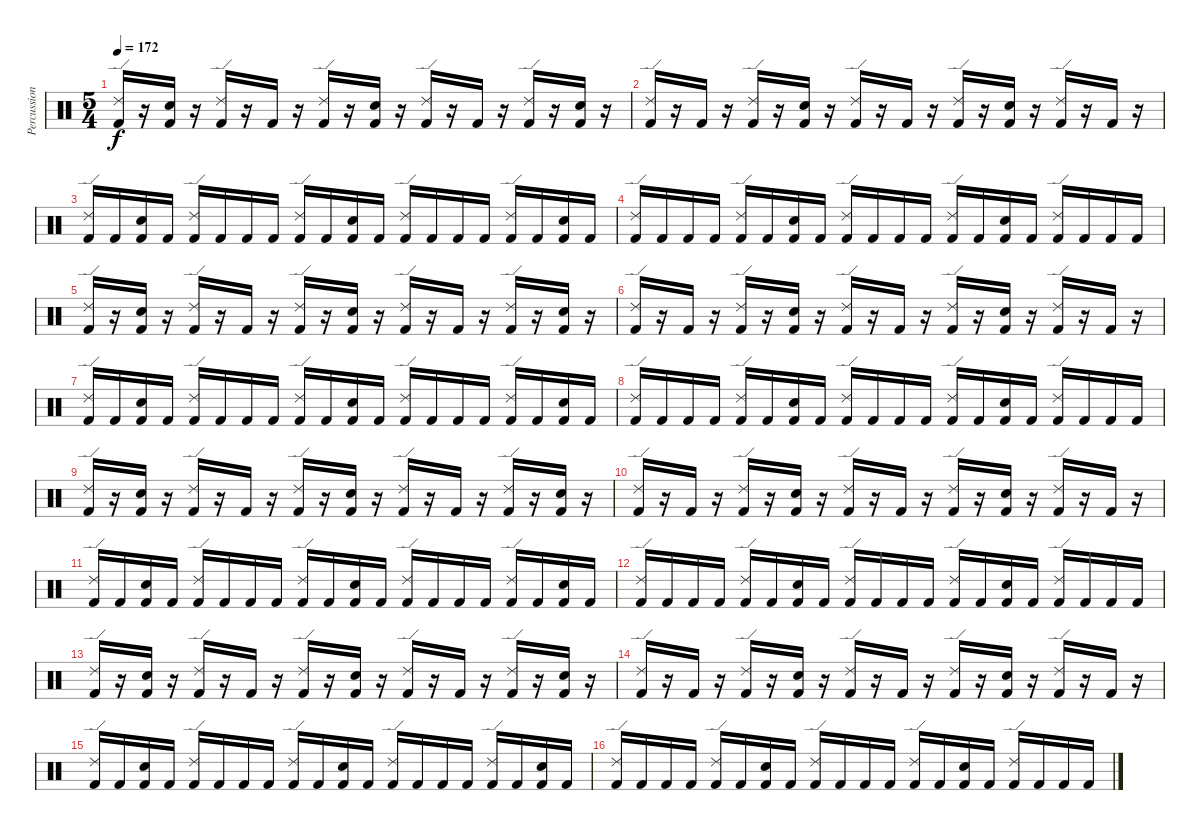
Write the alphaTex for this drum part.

\track ("Percussion" "Percussion") {instrument percussion}
\staff {score}
\articulation defaults
\ts (5 4)
\tempo 172
\clef neutral
\ks c
("Ride (edge) 2" "Kick (hit) 2").16{dy f} r.16 ("Electric Snare (hit)" "Kick (hit) 2").16 r.16 ("Ride (edge) 2" "Kick (hit) 2").16 r.16 "Kick (hit) 2".16 r.16 ("Ride (edge) 2" "Kick (hit) 2").16 r.16 ("Electric Snare (hit)" "Kick (hit) 2").16 r.16 ("Ride (edge) 2" "Kick (hit) 2").16 r.16 "Kick (hit) 2".16 r.16 ("Ride (edge) 2" "Kick (hit) 2").16 r.16 ("Electric Snare (hit)" "Kick (hit) 2").16 r.16 |
("Ride (edge) 2" "Kick (hit) 2").16 r.16 "Kick (hit) 2".16 r.16 ("Ride (edge) 2" "Kick (hit) 2").16 r.16 ("Electric Snare (hit)" "Kick (hit) 2").16 r.16 ("Ride (edge) 2" "Kick (hit) 2").16 r.16 "Kick (hit) 2".16 r.16 ("Ride (edge) 2" "Kick (hit) 2").16 r.16 ("Electric Snare (hit)" "Kick (hit) 2").16 r.16 ("Ride (edge) 2" "Kick (hit) 2").16 r.16 "Kick (hit) 2".16 r.16 |
("Ride (edge) 2" "Kick (hit) 2").16 "Kick (hit) 2".16 ("Electric Snare (hit)" "Kick (hit) 2").16 "Kick (hit) 2".16 ("Ride (edge) 2" "Kick (hit) 2").16 "Kick (hit) 2".16 "Kick (hit) 2".16 "Kick (hit) 2".16 ("Ride (edge) 2" "Kick (hit) 2").16 "Kick (hit) 2".16 ("Electric Snare (hit)" "Kick (hit) 2").16 "Kick (hit) 2".16 ("Ride (edge) 2" "Kick (hit) 2").16 "Kick (hit) 2".16 "Kick (hit) 2".16 "Kick (hit) 2".16 ("Ride (edge) 2" "Kick (hit) 2").16 "Kick (hit) 2".16 ("Electric Snare (hit)" "Kick (hit) 2").16 "Kick (hit) 2".16 |
("Ride (edge) 2" "Kick (hit) 2").16 "Kick (hit) 2".16 "Kick (hit) 2".16 "Kick (hit) 2".16 ("Ride (edge) 2" "Kick (hit) 2").16 "Kick (hit) 2".16 ("Electric Snare (hit)" "Kick (hit) 2").16 "Kick (hit) 2".16 ("Ride (edge) 2" "Kick (hit) 2").16 "Kick (hit) 2".16 "Kick (hit) 2".16 "Kick (hit) 2".16 ("Ride (edge) 2" "Kick (hit) 2").16 "Kick (hit) 2".16 ("Electric Snare (hit)" "Kick (hit) 2").16 "Kick (hit) 2".16 ("Ride (edge) 2" "Kick (hit) 2").16 "Kick (hit) 2".16 "Kick (hit) 2".16 "Kick (hit) 2".16 |
("Ride (edge) 2" "Kick (hit) 2").16 r.16 ("Electric Snare (hit)" "Kick (hit) 2").16 r.16 ("Ride (edge) 2" "Kick (hit) 2").16 r.16 "Kick (hit) 2".16 r.16 ("Ride (edge) 2" "Kick (hit) 2").16 r.16 ("Electric Snare (hit)" "Kick (hit) 2").16 r.16 ("Ride (edge) 2" "Kick (hit) 2").16 r.16 "Kick (hit) 2".16 r.16 ("Ride (edge) 2" "Kick (hit) 2").16 r.16 ("Electric Snare (hit)" "Kick (hit) 2").16 r.16 |
("Ride (edge) 2" "Kick (hit) 2").16 r.16 "Kick (hit) 2".16 r.16 ("Ride (edge) 2" "Kick (hit) 2").16 r.16 ("Electric Snare (hit)" "Kick (hit) 2").16 r.16 ("Ride (edge) 2" "Kick (hit) 2").16 r.16 "Kick (hit) 2".16 r.16 ("Ride (edge) 2" "Kick (hit) 2").16 r.16 ("Electric Snare (hit)" "Kick (hit) 2").16 r.16 ("Ride (edge) 2" "Kick (hit) 2").16 r.16 "Kick (hit) 2".16 r.16 |
("Ride (edge) 2" "Kick (hit) 2").16 "Kick (hit) 2".16 ("Electric Snare (hit)" "Kick (hit) 2").16 "Kick (hit) 2".16 ("Ride (edge) 2" "Kick (hit) 2").16 "Kick (hit) 2".16 "Kick (hit) 2".16 "Kick (hit) 2".16 ("Ride (edge) 2" "Kick (hit) 2").16 "Kick (hit) 2".16 ("Electric Snare (hit)" "Kick (hit) 2").16 "Kick (hit) 2".16 ("Ride (edge) 2" "Kick (hit) 2").16 "Kick (hit) 2".16 "Kick (hit) 2".16 "Kick (hit) 2".16 ("Ride (edge) 2" "Kick (hit) 2").16 "Kick (hit) 2".16 ("Electric Snare (hit)" "Kick (hit) 2").16 "Kick (hit) 2".16 |
("Ride (edge) 2" "Kick (hit) 2").16 "Kick (hit) 2".16 "Kick (hit) 2".16 "Kick (hit) 2".16 ("Ride (edge) 2" "Kick (hit) 2").16 "Kick (hit) 2".16 ("Electric Snare (hit)" "Kick (hit) 2").16 "Kick (hit) 2".16 ("Ride (edge) 2" "Kick (hit) 2").16 "Kick (hit) 2".16 "Kick (hit) 2".16 "Kick (hit) 2".16 ("Ride (edge) 2" "Kick (hit) 2").16 "Kick (hit) 2".16 ("Electric Snare (hit)" "Kick (hit) 2").16 "Kick (hit) 2".16 ("Ride (edge) 2" "Kick (hit) 2").16 "Kick (hit) 2".16 "Kick (hit) 2".16 "Kick (hit) 2".16 |
("Ride (edge) 2" "Kick (hit) 2").16 r.16 ("Electric Snare (hit)" "Kick (hit) 2").16 r.16 ("Ride (edge) 2" "Kick (hit) 2").16 r.16 "Kick (hit) 2".16 r.16 ("Ride (edge) 2" "Kick (hit) 2").16 r.16 ("Electric Snare (hit)" "Kick (hit) 2").16 r.16 ("Ride (edge) 2" "Kick (hit) 2").16 r.16 "Kick (hit) 2".16 r.16 ("Ride (edge) 2" "Kick (hit) 2").16 r.16 ("Electric Snare (hit)" "Kick (hit) 2").16 r.16 |
("Ride (edge) 2" "Kick (hit) 2").16 r.16 "Kick (hit) 2".16 r.16 ("Ride (edge) 2" "Kick (hit) 2").16 r.16 ("Electric Snare (hit)" "Kick (hit) 2").16 r.16 ("Ride (edge) 2" "Kick (hit) 2").16 r.16 "Kick (hit) 2".16 r.16 ("Ride (edge) 2" "Kick (hit) 2").16 r.16 ("Electric Snare (hit)" "Kick (hit) 2").16 r.16 ("Ride (edge) 2" "Kick (hit) 2").16 r.16 "Kick (hit) 2".16 r.16 |
("Ride (edge) 2" "Kick (hit) 2").16 "Kick (hit) 2".16 ("Electric Snare (hit)" "Kick (hit) 2").16 "Kick (hit) 2".16 ("Ride (edge) 2" "Kick (hit) 2").16 "Kick (hit) 2".16 "Kick (hit) 2".16 "Kick (hit) 2".16 ("Ride (edge) 2" "Kick (hit) 2").16 "Kick (hit) 2".16 ("Electric Snare (hit)" "Kick (hit) 2").16 "Kick (hit) 2".16 ("Ride (edge) 2" "Kick (hit) 2").16 "Kick (hit) 2".16 "Kick (hit) 2".16 "Kick (hit) 2".16 ("Ride (edge) 2" "Kick (hit) 2").16 "Kick (hit) 2".16 ("Electric Snare (hit)" "Kick (hit) 2").16 "Kick (hit) 2".16 |
("Ride (edge) 2" "Kick (hit) 2").16 "Kick (hit) 2".16 "Kick (hit) 2".16 "Kick (hit) 2".16 ("Ride (edge) 2" "Kick (hit) 2").16 "Kick (hit) 2".16 ("Electric Snare (hit)" "Kick (hit) 2").16 "Kick (hit) 2".16 ("Ride (edge) 2" "Kick (hit) 2").16 "Kick (hit) 2".16 "Kick (hit) 2".16 "Kick (hit) 2".16 ("Ride (edge) 2" "Kick (hit) 2").16 "Kick (hit) 2".16 ("Electric Snare (hit)" "Kick (hit) 2").16 "Kick (hit) 2".16 ("Ride (edge) 2" "Kick (hit) 2").16 "Kick (hit) 2".16 "Kick (hit) 2".16 "Kick (hit) 2".16 |
("Ride (edge) 2" "Kick (hit) 2").16 r.16 ("Electric Snare (hit)" "Kick (hit) 2").16 r.16 ("Ride (edge) 2" "Kick (hit) 2").16 r.16 "Kick (hit) 2".16 r.16 ("Ride (edge) 2" "Kick (hit) 2").16 r.16 ("Electric Snare (hit)" "Kick (hit) 2").16 r.16 ("Ride (edge) 2" "Kick (hit) 2").16 r.16 "Kick (hit) 2".16 r.16 ("Ride (edge) 2" "Kick (hit) 2").16 r.16 ("Electric Snare (hit)" "Kick (hit) 2").16 r.16 |
("Ride (edge) 2" "Kick (hit) 2").16 r.16 "Kick (hit) 2".16 r.16 ("Ride (edge) 2" "Kick (hit) 2").16 r.16 ("Electric Snare (hit)" "Kick (hit) 2").16 r.16 ("Ride (edge) 2" "Kick (hit) 2").16 r.16 "Kick (hit) 2".16 r.16 ("Ride (edge) 2" "Kick (hit) 2").16 r.16 ("Electric Snare (hit)" "Kick (hit) 2").16 r.16 ("Ride (edge) 2" "Kick (hit) 2").16 r.16 "Kick (hit) 2".16 r.16 |
("Ride (edge) 2" "Kick (hit) 2").16 "Kick (hit) 2".16 ("Electric Snare (hit)" "Kick (hit) 2").16 "Kick (hit) 2".16 ("Ride (edge) 2" "Kick (hit) 2").16 "Kick (hit) 2".16 "Kick (hit) 2".16 "Kick (hit) 2".16 ("Ride (edge) 2" "Kick (hit) 2").16 "Kick (hit) 2".16 ("Electric Snare (hit)" "Kick (hit) 2").16 "Kick (hit) 2".16 ("Ride (edge) 2" "Kick (hit) 2").16 "Kick (hit) 2".16 "Kick (hit) 2".16 "Kick (hit) 2".16 ("Ride (edge) 2" "Kick (hit) 2").16 "Kick (hit) 2".16 ("Electric Snare (hit)" "Kick (hit) 2").16 "Kick (hit) 2".16 |
("Ride (edge) 2" "Kick (hit) 2").16 "Kick (hit) 2".16 "Kick (hit) 2".16 "Kick (hit) 2".16 ("Ride (edge) 2" "Kick (hit) 2").16 "Kick (hit) 2".16 ("Electric Snare (hit)" "Kick (hit) 2").16 "Kick (hit) 2".16 ("Ride (edge) 2" "Kick (hit) 2").16 "Kick (hit) 2".16 "Kick (hit) 2".16 "Kick (hit) 2".16 ("Ride (edge) 2" "Kick (hit) 2").16 "Kick (hit) 2".16 ("Electric Snare (hit)" "Kick (hit) 2").16 "Kick (hit) 2".16 ("Ride (edge) 2" "Kick (hit) 2").16 "Kick (hit) 2".16 "Kick (hit) 2".16 "Kick (hit) 2".16
